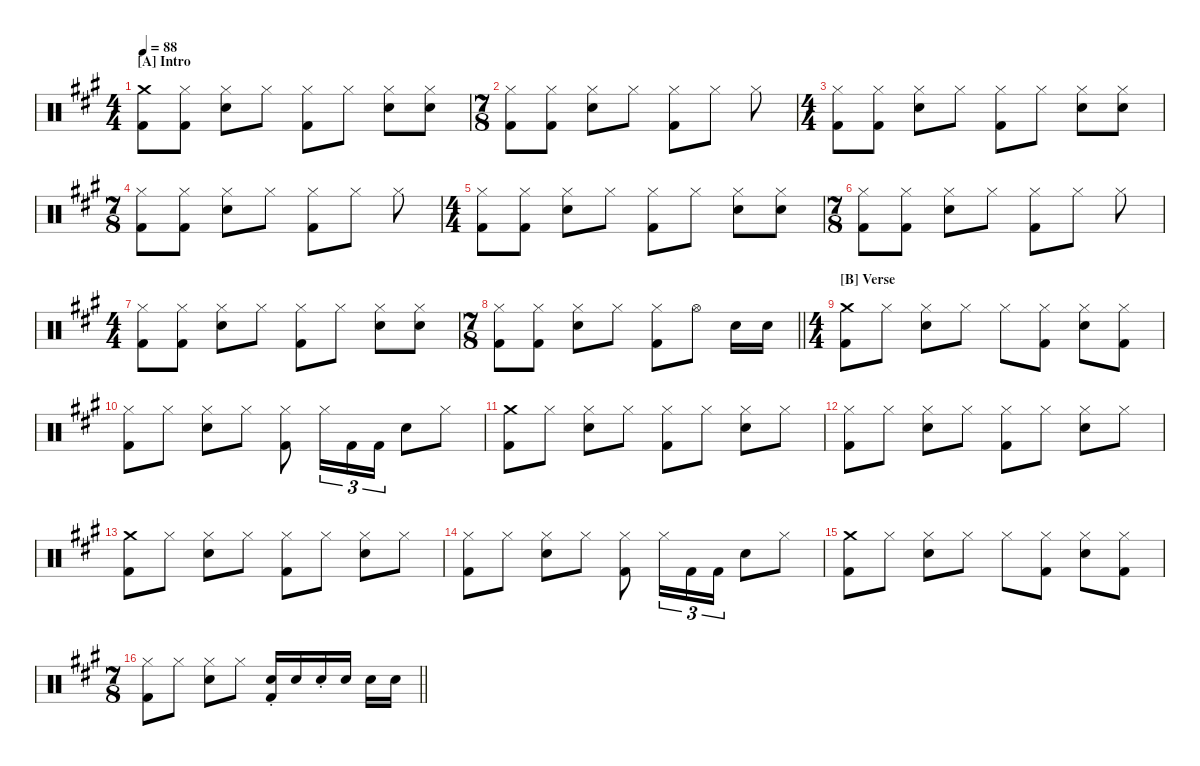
\hideDynamics
\bracketExtendMode nobrackets
\singleTrackTrackNamePolicy hidden
\multiTrackTrackNamePolicy hidden
\firstSystemTrackNameMode fullname
\firstSystemTrackNameOrientation horizontal
\otherSystemsTrackNameOrientation horizontal
\track ("Drumkit" "Drums") {defaultSystemsLayout 4 instrument percussion}
\staff {score}
\articulation defaults
\ts (4 4)
\beaming (8 2 2 2 2)
\section ("A" "Intro")
\scale
0.478284
\tempo 88
\accidentals auto
\clef neutral
\ottava regular
\simile none
\ks a
("Crash medium (hit)"{acc forcenatural} "Kick (hit) 2"{acc forcenatural}).8{dy f beam Down beam merge} ("Hi-Hat (closed)"{acc forcenatural} "Kick (hit) 2"{acc forcenatural}).8{beam Down beam split} ("Hi-Hat (closed)"{acc forcenatural} "Snare (hit) 2"{acc forcenatural}).8{beam Down beam merge} "Hi-Hat (closed)"{acc forcenatural}.8{beam Down} ("Hi-Hat (closed)"{acc forcenatural} "Kick (hit) 2"{acc forcenatural}).8{dy ff beam Down beam merge} "Hi-Hat (closed)"{acc forcenatural}.8{beam Down beam split} ("Hi-Hat (closed)"{acc forcenatural} "Snare (hit) 2"{acc forcenatural}).8{beam Down beam merge} ("Hi-Hat (closed)"{acc forcenatural} "Snare (hit) 2"{acc forcenatural}).8{beam Down} |
\ts (7 8)
\beaming (8 2 2 2 1)
\scale
0.520826 ("Hi-Hat (closed)"{acc forcenatural} "Kick (hit) 2"{acc forcenatural}).8{dy f beam Down} ("Hi-Hat (closed)"{acc forcenatural} "Kick (hit) 2"{acc forcenatural}).8{beam Down} ("Hi-Hat (closed)"{acc forcenatural} "Snare (hit) 2"{acc forcenatural}).8{beam Down} "Hi-Hat (closed)"{acc forcenatural}.8{beam Down} ("Hi-Hat (closed)"{acc forcenatural} "Kick (hit) 2"{acc forcenatural}).8{beam Down} "Hi-Hat (closed)"{acc forcenatural}.8{beam Down} "Hi-Hat (closed)"{acc forcenatural}.8{beam Down} |
\ts (4 4)
\beaming (8 2 2 2 2)
\scale
0.528046 ("Hi-Hat (closed)"{acc forcenatural} "Kick (hit) 2"{acc forcenatural}).8{beam Down} ("Hi-Hat (closed)"{acc forcenatural} "Kick (hit) 2"{acc forcenatural}).8{beam Down} ("Hi-Hat (closed)"{acc forcenatural} "Snare (hit) 2"{acc forcenatural}).8{beam Down} "Hi-Hat (closed)"{acc forcenatural}.8{beam Down} ("Hi-Hat (closed)"{acc forcenatural} "Kick (hit) 2"{acc forcenatural}).8{dy ff beam Down} "Hi-Hat (closed)"{acc forcenatural}.8{beam Down} ("Hi-Hat (closed)"{acc forcenatural} "Snare (hit) 2"{acc forcenatural}).8{beam Down} ("Hi-Hat (closed)"{acc forcenatural} "Snare (hit) 2"{acc forcenatural}).8{beam Down} |
\ts (7 8)
\beaming (8 2 2 2 1)
\scale
0.471585 ("Hi-Hat (closed)"{acc forcenatural} "Kick (hit) 2"{acc forcenatural}).8{dy f beam Down} ("Hi-Hat (closed)"{acc forcenatural} "Kick (hit) 2"{acc forcenatural}).8{beam Down} ("Hi-Hat (closed)"{acc forcenatural} "Snare (hit) 2"{acc forcenatural}).8{beam Down} "Hi-Hat (closed)"{acc forcenatural}.8{beam Down} ("Hi-Hat (closed)"{acc forcenatural} "Kick (hit) 2"{acc forcenatural}).8{beam Down} "Hi-Hat (closed)"{acc forcenatural}.8{beam Down} "Hi-Hat (closed)"{acc forcenatural}.8{beam Down} |
\ts (4 4)
\beaming (8 2 2 2 2)
\scale
0.544634 ("Hi-Hat (closed)"{acc forcenatural} "Kick (hit) 2"{acc forcenatural}).8{beam Down} ("Hi-Hat (closed)"{acc forcenatural} "Kick (hit) 2"{acc forcenatural}).8{beam Down} ("Hi-Hat (closed)"{acc forcenatural} "Snare (hit) 2"{acc forcenatural}).8{beam Down} "Hi-Hat (closed)"{acc forcenatural}.8{beam Down} ("Hi-Hat (closed)"{acc forcenatural} "Kick (hit) 2"{acc forcenatural}).8{dy ff beam Down} "Hi-Hat (closed)"{acc forcenatural}.8{beam Down} ("Hi-Hat (closed)"{acc forcenatural} "Snare (hit) 2"{acc forcenatural}).8{beam Down} ("Hi-Hat (closed)"{acc forcenatural} "Snare (hit) 2"{acc forcenatural}).8{beam Down} |
\ts (7 8)
\beaming (8 2 2 2 1)
\scale
0.455038 ("Hi-Hat (closed)"{acc forcenatural} "Kick (hit) 2"{acc forcenatural}).8{dy f beam Down} ("Hi-Hat (closed)"{acc forcenatural} "Kick (hit) 2"{acc forcenatural}).8{beam Down} ("Hi-Hat (closed)"{acc forcenatural} "Snare (hit) 2"{acc forcenatural}).8{beam Down} "Hi-Hat (closed)"{acc forcenatural}.8{beam Down} ("Hi-Hat (closed)"{acc forcenatural} "Kick (hit) 2"{acc forcenatural}).8{beam Down} "Hi-Hat (closed)"{acc forcenatural}.8{beam Down} "Hi-Hat (closed)"{acc forcenatural}.8{beam Down} |
\ts (4 4)
\beaming (8 2 2 2 2)
\scale
0.563987 ("Hi-Hat (closed)"{acc forcenatural} "Kick (hit) 2"{acc forcenatural}).8{beam Down} ("Hi-Hat (closed)"{acc forcenatural} "Kick (hit) 2"{acc forcenatural}).8{beam Down} ("Hi-Hat (closed)"{acc forcenatural} "Snare (hit) 2"{acc forcenatural}).8{beam Down} "Hi-Hat (closed)"{acc forcenatural}.8{beam Down} ("Hi-Hat (closed)"{acc forcenatural} "Kick (hit) 2"{acc forcenatural}).8{dy ff beam Down} "Hi-Hat (closed)"{acc forcenatural}.8{beam Down} ("Hi-Hat (closed)"{acc forcenatural} "Snare (hit) 2"{acc forcenatural}).8{beam Down} ("Hi-Hat (closed)"{acc forcenatural} "Snare (hit) 2"{acc forcenatural}).8{beam Down} |
\ts (7 8)
\beaming (8 2 2 2 1)
\scale
0.435733
\barLineRight lightlight
("Hi-Hat (closed)"{acc forcenatural} "Kick (hit) 2"{acc forcenatural}).8{dy f beam Down} ("Hi-Hat (closed)"{acc forcenatural} "Kick (hit) 2"{acc forcenatural}).8{beam Down} ("Hi-Hat (closed)"{acc forcenatural} "Snare (hit) 2"{acc forcenatural}).8{beam Down} "Hi-Hat (closed)"{acc forcenatural}.8{beam Down} ("Hi-Hat (closed)"{acc forcenatural} "Kick (hit) 2"{acc forcenatural}).8{beam Down} "Hi-Hat (open)"{acc forcenatural}.8{beam Down} "Snare (hit) 2"{acc forcenatural}.16{beam Down} "Snare (hit) 2"{acc forcenatural}.16{beam Down} |
\ts (4 4)
\beaming (8 2 2 2 2)
\section ("B" "Verse")
\scale
0.516484 ("Crash medium (hit)"{acc forcenatural} "Kick (hit) 2"{acc forcenatural}).8{beam Down} "Hi-Hat (closed)"{acc forcenatural}.8{beam Down} ("Hi-Hat (closed)"{acc forcenatural} "Snare (hit) 2"{acc forcenatural}).8{beam Down} "Hi-Hat (closed)"{acc forcenatural}.8{beam Down} "Hi-Hat (closed)"{acc forcenatural}.8{beam Down} ("Hi-Hat (closed)"{acc forcenatural} "Kick (hit) 2"{acc forcenatural}).8{beam Down} ("Hi-Hat (closed)"{acc forcenatural} "Snare (hit) 2"{acc forcenatural}).8{beam Down} ("Hi-Hat (closed)"{acc forcenatural} "Kick (hit) 2"{acc forcenatural}).8{beam Down} |
\scale
0.483516 ("Hi-Hat (closed)"{acc forcenatural} "Kick (hit) 2"{acc forcenatural}).8{beam Down} "Hi-Hat (closed)"{acc forcenatural}.8{beam Down} ("Hi-Hat (closed)"{acc forcenatural} "Snare (hit) 2"{acc forcenatural}).8{beam Down} "Hi-Hat (closed)"{acc forcenatural}.8{beam Down} ("Hi-Hat (closed)"{acc forcenatural} "Kick (hit) 2"{acc forcenatural}).8{dy ff beam Down} "Hi-Hat (closed)"{acc forcenatural}.16{tu (3 2) beam Down} "Kick (hit) 2"{acc forcenatural}.16{tu (3 2) beam Down} "Kick (hit) 2"{acc forcenatural}.16{tu (3 2) beam Down} "Snare (hit) 2"{acc forcenatural}.8{beam Down} "Hi-Hat (closed)"{acc forcenatural}.8{beam Down} |
\scale
0.5 ("Crash medium (hit)"{acc forcenatural} "Kick (hit) 2"{acc forcenatural}).8{dy f beam Down} "Hi-Hat (closed)"{acc forcenatural}.8{beam Down} ("Hi-Hat (closed)"{acc forcenatural} "Snare (hit) 2"{acc forcenatural}).8{beam Down} "Hi-Hat (closed)"{acc forcenatural}.8{beam Down} ("Hi-Hat (closed)"{acc forcenatural} "Kick (hit) 2"{acc forcenatural}).8{beam Down} "Hi-Hat (closed)"{acc forcenatural}.8{beam Down} ("Hi-Hat (closed)"{acc forcenatural} "Snare (hit) 2"{acc forcenatural}).8{beam Down} "Hi-Hat (closed)"{acc forcenatural}.8{beam Down} |
\scale
0.5 ("Hi-Hat (closed)"{acc forcenatural} "Kick (hit) 2"{acc forcenatural}).8{beam Down} "Hi-Hat (closed)"{acc forcenatural}.8{beam Down} ("Hi-Hat (closed)"{acc forcenatural} "Snare (hit) 2"{acc forcenatural}).8{beam Down} "Hi-Hat (closed)"{acc forcenatural}.8{beam Down} ("Hi-Hat (closed)"{acc forcenatural} "Kick (hit) 2"{acc forcenatural}).8{dy ff beam Down} "Hi-Hat (closed)"{acc forcenatural}.8{beam Down} ("Hi-Hat (closed)"{acc forcenatural} "Snare (hit) 2"{acc forcenatural}).8{beam Down} "Hi-Hat (closed)"{acc forcenatural}.8{beam Down} |
\scale
0.5 ("Crash medium (hit)"{acc forcenatural} "Kick (hit) 2"{acc forcenatural}).8{dy f beam Down} "Hi-Hat (closed)"{acc forcenatural}.8{beam Down} ("Hi-Hat (closed)"{acc forcenatural} "Snare (hit) 2"{acc forcenatural}).8{beam Down} "Hi-Hat (closed)"{acc forcenatural}.8{beam Down} ("Hi-Hat (closed)"{acc forcenatural} "Kick (hit) 2"{acc forcenatural}).8{beam Down} "Hi-Hat (closed)"{acc forcenatural}.8{beam Down} ("Hi-Hat (closed)"{acc forcenatural} "Snare (hit) 2"{acc forcenatural}).8{beam Down} "Hi-Hat (closed)"{acc forcenatural}.8{beam Down} |
\scale
0.5 ("Hi-Hat (closed)"{acc forcenatural} "Kick (hit) 2"{acc forcenatural}).8{beam Down} "Hi-Hat (closed)"{acc forcenatural}.8{beam Down} ("Hi-Hat (closed)"{acc forcenatural} "Snare (hit) 2"{acc forcenatural}).8{beam Down} "Hi-Hat (closed)"{acc forcenatural}.8{beam Down} ("Hi-Hat (closed)"{acc forcenatural} "Kick (hit) 2"{acc forcenatural}).8{dy ff beam Down} "Hi-Hat (closed)"{acc forcenatural}.16{tu (3 2) beam Down} "Kick (hit) 2"{acc forcenatural}.16{tu (3 2) beam Down} "Kick (hit) 2"{acc forcenatural}.16{tu (3 2) beam Down} "Snare (hit) 2"{acc forcenatural}.8{beam Down} "Hi-Hat (closed)"{acc forcenatural}.8{beam Down} |
\scale
0.511628 ("Crash medium (hit)"{acc forcenatural} "Kick (hit) 2"{acc forcenatural}).8{dy f beam Down} "Hi-Hat (closed)"{acc forcenatural}.8{beam Down} ("Hi-Hat (closed)"{acc forcenatural} "Snare (hit) 2"{acc forcenatural}).8{beam Down} "Hi-Hat (closed)"{acc forcenatural}.8{beam Down} "Hi-Hat (closed)"{acc forcenatural}.8{beam Down} ("Hi-Hat (closed)"{acc forcenatural} "Kick (hit) 2"{acc forcenatural}).8{beam Down} ("Hi-Hat (closed)"{acc forcenatural} "Snare (hit) 2"{acc forcenatural}).8{beam Down} ("Hi-Hat (closed)"{acc forcenatural} "Kick (hit) 2"{acc forcenatural}).8{beam Down} |
\ts (7 8)
\beaming (8 2 2 2 1)
\scale
0.488372
\barLineRight lightlight
("Hi-Hat (closed)"{acc forcenatural} "Kick (hit) 2"{acc forcenatural}).8{beam Down} "Hi-Hat (closed)"{acc forcenatural}.8{beam Down} ("Hi-Hat (closed)"{acc forcenatural} "Snare (hit) 2"{acc forcenatural}).8{beam Down} "Hi-Hat (closed)"{acc forcenatural}.8{beam Down} ("Snare (hit) 2"{st acc forcenatural} "Kick (hit) 2"{acc forcenatural}).16{beam Up} "Snare (hit) 2"{acc forcenatural}.16{beam Up} "Snare (hit) 2"{st acc forcenatural}.16{beam Up} "Snare (hit) 2"{acc forcenatural}.16{beam Up} "Snare (hit) 2"{acc forcenatural}.16{beam Down} "Snare (hit) 2"{acc forcenatural}.16{beam Down}
